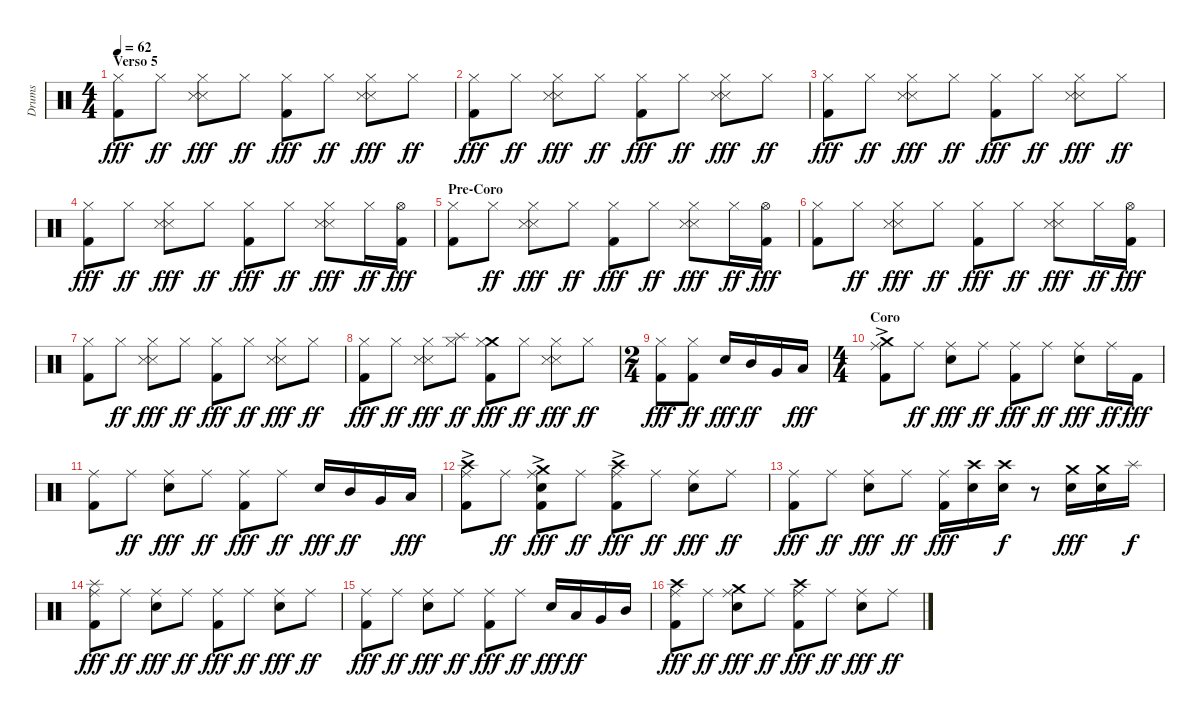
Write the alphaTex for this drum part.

\track ("Drums" "Drums") {instrument percussion}
\staff {score}
\articulation defaults
\ts (4 4)
\section ("" "Verso 5")
\tempo 62
\clef neutral
\ks c
("Hi-Hat (closed)" "Kick (hit) 2").8{dy fff} "Hi-Hat (closed)".8{dy ff} ("Hi-Hat (closed)" "Snare (side stick) 3" "Snare (side stick) 3").8{dy fff} "Hi-Hat (closed)".8{dy ff} ("Hi-Hat (closed)" "Kick (hit) 2").8{dy fff} "Hi-Hat (closed)".8{dy ff} ("Hi-Hat (closed)" "Snare (side stick) 3" "Snare (side stick) 3").8{dy fff} "Hi-Hat (closed)".8{dy ff} |
("Hi-Hat (closed)" "Kick (hit) 2").8{dy fff} "Hi-Hat (closed)".8{dy ff} ("Hi-Hat (closed)" "Snare (side stick) 3" "Snare (side stick) 3").8{dy fff} "Hi-Hat (closed)".8{dy ff} ("Hi-Hat (closed)" "Kick (hit) 2").8{dy fff} "Hi-Hat (closed)".8{dy ff} ("Hi-Hat (closed)" "Snare (side stick) 3" "Snare (side stick) 3").8{dy fff} "Hi-Hat (closed)".8{dy ff} |
("Hi-Hat (closed)" "Kick (hit) 2").8{dy fff} "Hi-Hat (closed)".8{dy ff} ("Hi-Hat (closed)" "Snare (side stick) 3" "Snare (side stick) 3").8{dy fff} "Hi-Hat (closed)".8{dy ff} ("Hi-Hat (closed)" "Kick (hit) 2").8{dy fff} "Hi-Hat (closed)".8{dy ff} ("Hi-Hat (closed)" "Snare (side stick) 3" "Snare (side stick) 3").8{dy fff} "Hi-Hat (closed)".8{dy ff} |
("Hi-Hat (closed)" "Kick (hit) 2").8{dy fff} "Hi-Hat (closed)".8{dy ff} ("Hi-Hat (closed)" "Snare (side stick) 3" "Snare (side stick) 3").8{dy fff} "Hi-Hat (closed)".8{dy ff} ("Hi-Hat (closed)" "Kick (hit) 2").8{dy fff} "Hi-Hat (closed)".8{dy ff} ("Hi-Hat (closed)" "Snare (side stick) 3" "Snare (side stick) 3").8{dy fff} "Hi-Hat (closed)".16{dy ff} ("Hi-Hat (open)" "Kick (hit) 2").16{dy fff} |
\section ("" "Pre-Coro")
("Hi-Hat (closed)" "Kick (hit) 2").8 "Hi-Hat (closed)".8{dy ff} ("Hi-Hat (closed)" "Snare (side stick) 3" "Snare (side stick) 3").8{dy fff} "Hi-Hat (closed)".8{dy ff} ("Hi-Hat (closed)" "Kick (hit) 2").8{dy fff} "Hi-Hat (closed)".8{dy ff} ("Hi-Hat (closed)" "Snare (side stick) 3" "Snare (side stick) 3").8{dy fff} "Hi-Hat (closed)".16{dy ff} ("Hi-Hat (open)" "Kick (hit) 2").16{dy fff} |
("Hi-Hat (closed)" "Kick (hit) 2").8 "Hi-Hat (closed)".8{dy ff} ("Hi-Hat (closed)" "Snare (side stick) 3" "Snare (side stick) 3").8{dy fff} "Hi-Hat (closed)".8{dy ff} ("Hi-Hat (closed)" "Kick (hit) 2").8{dy fff} "Hi-Hat (closed)".8{dy ff} ("Hi-Hat (closed)" "Snare (side stick) 3" "Snare (side stick) 3").8{dy fff} "Hi-Hat (closed)".16{dy ff} ("Hi-Hat (open)" "Kick (hit) 2").16{dy fff} |
("Hi-Hat (closed)" "Kick (hit) 2").8 "Hi-Hat (closed)".8{dy ff} ("Hi-Hat (closed)" "Snare (side stick) 3" "Snare (side stick) 3").8{dy fff} "Hi-Hat (closed)".8{dy ff} ("Hi-Hat (closed)" "Kick (hit) 2").8{dy fff} "Hi-Hat (closed)".8{dy ff} ("Hi-Hat (closed)" "Snare (side stick) 3" "Snare (side stick) 3").8{dy fff} "Hi-Hat (closed)".8{dy ff} |
("Hi-Hat (closed)" "Kick (hit) 2").8{dy fff} "Hi-Hat (closed)".8{dy ff} ("Hi-Hat (closed)" "Snare (side stick) 3" "Snare (side stick) 3").8{dy fff} ("Splash (hit)" "Hi-Hat (closed)").8{dy ff} ("Crash medium (hit)" "Hi-Hat (closed)" "Kick (hit) 2").8{dy fff} "Hi-Hat (closed)".8{dy ff} ("Hi-Hat (closed)" "Snare (side stick) 3" "Snare (side stick) 3").8{dy fff} "Hi-Hat (closed)".8{dy ff} |
\ts (2 4)
("Hi-Hat (closed)" "Kick (hit) 2").8{dy fff} ("Hi-Hat (closed)" "Kick (hit) 2").8{dy ff} "Electric Snare (hit)".16{dy fff} "Mid Tom (hit)".16{dy ff} "Very Low Tom (hit)".16 "Low Tom (hit)".16{dy fff} |
\ts (4 4)
\section ("" "Coro")
("Crash medium (hit)"{ac} "Ride (middle)" "Kick (hit) 2").8 "Ride (middle)".8{dy ff} ("Ride (middle)" "Electric Snare (hit)").8{dy fff} "Ride (middle)".8{dy ff} ("Ride (middle)" "Kick (hit) 2").8{dy fff} "Ride (middle)".8{dy ff} ("Ride (middle)" "Electric Snare (hit)").8{dy fff} "Ride (middle)".16{dy ff} "Kick (hit) 2".16{dy fff} |
("Ride (middle)" "Kick (hit) 2").8 "Ride (middle)".8{dy ff} ("Ride (middle)" "Electric Snare (hit)").8{dy fff} "Ride (middle)".8{dy ff} ("Ride (middle)" "Kick (hit) 2").8{dy fff} "Ride (middle)".8{dy ff} "Electric Snare (hit)".16{dy fff} "Mid Tom (hit)".16{dy ff} "Very Low Tom (hit)".16 "Low Tom (hit)".16{dy fff} |
("Crash high (hit)"{ac} "Ride (middle)" "Kick (hit) 2").8 "Ride (middle)".8{dy ff} ("Crash medium (hit)"{ac} "Ride (middle)" "Electric Snare (hit)" "Kick (hit) 2").8{dy fff} "Ride (middle)".8{dy ff} ("Crash high (hit)"{ac} "Ride (middle)" "Kick (hit) 2").8{dy fff} "Ride (middle)".8{dy ff} ("Ride (middle)" "Electric Snare (hit)").8{dy fff} "Ride (middle)".8{dy ff} |
("Ride (middle)" "Kick (hit) 2").8{dy fff} "Ride (middle)".8{dy ff} ("Ride (middle)" "Electric Snare (hit)").8{dy fff} "Ride (middle)".8{dy ff} ("Ride (middle)" "Kick (hit) 2").16{dy fff} ("Crash high (hit)" "Electric Snare (hit)").16 ("Crash high (hit)" "Electric Snare (hit)").16{dy f} r.8 ("Crash medium (hit)" "Electric Snare (hit)").16{dy fff} ("Crash medium (hit)" "Electric Snare (hit)").16 "Splash (hit)".16{dy f} |
("Splash (hit)" "Ride (middle)" "Kick (hit) 2").8{dy fff} "Ride (middle)".8{dy ff} ("Ride (middle)" "Electric Snare (hit)").8{dy fff} "Ride (middle)".8{dy ff} ("Ride (middle)" "Kick (hit) 2").8{dy fff} "Ride (middle)".8{dy ff} ("Ride (middle)" "Electric Snare (hit)").8{dy fff} "Ride (middle)".8{dy ff} |
("Ride (middle)" "Kick (hit) 2").8{dy fff} "Ride (middle)".8{dy ff} ("Ride (middle)" "Electric Snare (hit)").8{dy fff} "Ride (middle)".8{dy ff} ("Ride (middle)" "Kick (hit) 2").8{dy fff} "Ride (middle)".8{dy ff} "Electric Snare (hit)".16{dy fff} "Low Tom (hit)".16{dy ff} "Very Low Tom (hit)".16 "Mid Tom (hit)".16 |
("Crash high (hit)" "Ride (middle)" "Kick (hit) 2").8{dy fff} "Ride (middle)".8{dy ff} ("Crash medium (hit)" "Ride (middle)" "Electric Snare (hit)").8{dy fff} "Ride (middle)".8{dy ff} ("Crash high (hit)" "Ride (middle)" "Kick (hit) 2").8{dy fff} "Ride (middle)".8{dy ff} ("Ride (middle)" "Electric Snare (hit)").8{dy fff} "Ride (middle)".8{dy ff}
